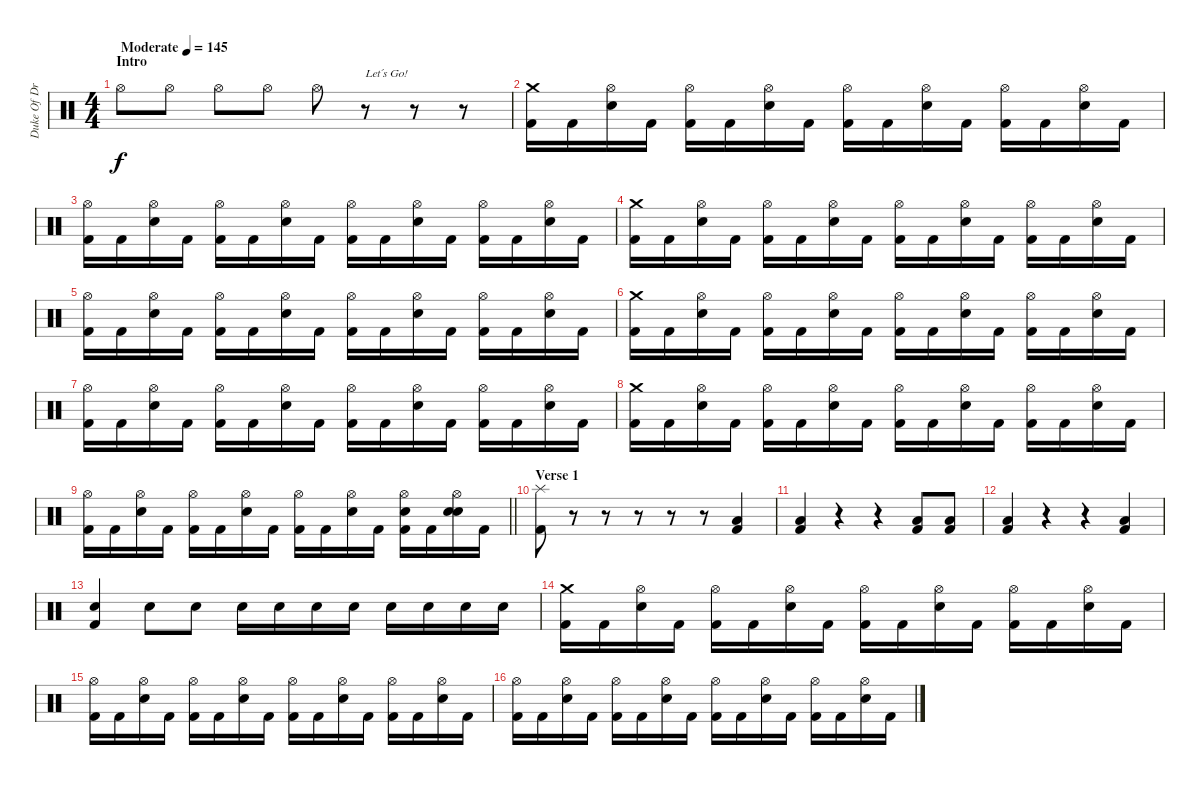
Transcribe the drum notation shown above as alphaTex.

\track ("Duke Of Drumington" "Duke Of Dr") {instrument percussion}
\staff {score}
\articulation defaults
\ts (4 4)
\section ("" "Intro")
\tempo (145 "Moderate")
\clef neutral
\ks c "Hi-Hat (open)".8{dy f} "Hi-Hat (open)".8 "Hi-Hat (open)".8 "Hi-Hat (open)".8 "Hi-Hat (open)".8
r.8{txt "Let´s Go!"} r.8 r.8 |
("Kick (hit) 2" "Crash medium (hit)").16 "Kick (hit) 2".16 ("Snare (hit) 2" "Hi-Hat (open)").16 "Kick (hit) 2".16 ("Kick (hit) 2" "Hi-Hat (open)").16 "Kick (hit) 2".16 ("Snare (hit) 2" "Hi-Hat (open)").16 "Kick (hit) 2".16 ("Kick (hit) 2" "Hi-Hat (open)").16 "Kick (hit) 2".16 ("Snare (hit) 2" "Hi-Hat (open)").16 "Kick (hit) 2".16 ("Kick (hit) 2" "Hi-Hat (open)").16 "Kick (hit) 2".16 ("Snare (hit) 2" "Hi-Hat (open)").16 "Kick (hit) 2".16 |
("Kick (hit) 2" "Hi-Hat (open)").16 "Kick (hit) 2".16 ("Snare (hit) 2" "Hi-Hat (open)").16 "Kick (hit) 2".16 ("Kick (hit) 2" "Hi-Hat (open)").16 "Kick (hit) 2".16 ("Snare (hit) 2" "Hi-Hat (open)").16 "Kick (hit) 2".16 ("Kick (hit) 2" "Hi-Hat (open)").16 "Kick (hit) 2".16 ("Snare (hit) 2" "Hi-Hat (open)").16 "Kick (hit) 2".16 ("Kick (hit) 2" "Hi-Hat (open)").16 "Kick (hit) 2".16 ("Snare (hit) 2" "Hi-Hat (open)").16 "Kick (hit) 2".16 |
("Kick (hit) 2" "Crash medium (hit)").16 "Kick (hit) 2".16 ("Snare (hit) 2" "Hi-Hat (open)").16 "Kick (hit) 2".16 ("Kick (hit) 2" "Hi-Hat (open)").16 "Kick (hit) 2".16 ("Snare (hit) 2" "Hi-Hat (open)").16 "Kick (hit) 2".16 ("Kick (hit) 2" "Hi-Hat (open)").16 "Kick (hit) 2".16 ("Snare (hit) 2" "Hi-Hat (open)").16 "Kick (hit) 2".16 ("Kick (hit) 2" "Hi-Hat (open)").16 "Kick (hit) 2".16 ("Snare (hit) 2" "Hi-Hat (open)").16 "Kick (hit) 2".16 |
("Kick (hit) 2" "Hi-Hat (open)").16 "Kick (hit) 2".16 ("Snare (hit) 2" "Hi-Hat (open)").16 "Kick (hit) 2".16 ("Kick (hit) 2" "Hi-Hat (open)").16 "Kick (hit) 2".16 ("Snare (hit) 2" "Hi-Hat (open)").16 "Kick (hit) 2".16 ("Kick (hit) 2" "Hi-Hat (open)").16 "Kick (hit) 2".16 ("Snare (hit) 2" "Hi-Hat (open)").16 "Kick (hit) 2".16 ("Kick (hit) 2" "Hi-Hat (open)").16 "Kick (hit) 2".16 ("Snare (hit) 2" "Hi-Hat (open)").16 "Kick (hit) 2".16 |
("Kick (hit) 2" "Crash medium (hit)").16 "Kick (hit) 2".16 ("Snare (hit) 2" "Hi-Hat (open)").16 "Kick (hit) 2".16 ("Kick (hit) 2" "Hi-Hat (open)").16 "Kick (hit) 2".16 ("Snare (hit) 2" "Hi-Hat (open)").16 "Kick (hit) 2".16 ("Kick (hit) 2" "Hi-Hat (open)").16 "Kick (hit) 2".16 ("Snare (hit) 2" "Hi-Hat (open)").16 "Kick (hit) 2".16 ("Kick (hit) 2" "Hi-Hat (open)").16 "Kick (hit) 2".16 ("Snare (hit) 2" "Hi-Hat (open)").16 "Kick (hit) 2".16 |
("Kick (hit) 2" "Hi-Hat (open)").16 "Kick (hit) 2".16 ("Snare (hit) 2" "Hi-Hat (open)").16 "Kick (hit) 2".16 ("Kick (hit) 2" "Hi-Hat (open)").16 "Kick (hit) 2".16 ("Snare (hit) 2" "Hi-Hat (open)").16 "Kick (hit) 2".16 ("Kick (hit) 2" "Hi-Hat (open)").16 "Kick (hit) 2".16 ("Snare (hit) 2" "Hi-Hat (open)").16 "Kick (hit) 2".16 ("Kick (hit) 2" "Hi-Hat (open)").16 "Kick (hit) 2".16 ("Snare (hit) 2" "Hi-Hat (open)").16 "Kick (hit) 2".16 |
("Kick (hit) 2" "Crash medium (hit)").16 "Kick (hit) 2".16 ("Snare (hit) 2" "Hi-Hat (open)").16 "Kick (hit) 2".16 ("Kick (hit) 2" "Hi-Hat (open)").16 "Kick (hit) 2".16 ("Snare (hit) 2" "Hi-Hat (open)").16 "Kick (hit) 2".16 ("Kick (hit) 2" "Hi-Hat (open)").16 "Kick (hit) 2".16 ("Snare (hit) 2" "Hi-Hat (open)").16 "Kick (hit) 2".16 ("Kick (hit) 2" "Hi-Hat (open)").16 "Kick (hit) 2".16 ("Snare (hit) 2" "Hi-Hat (open)").16 "Kick (hit) 2".16 |
\barLineRight lightlight
("Kick (hit) 2" "Hi-Hat (open)").16 "Kick (hit) 2".16 ("Snare (hit) 2" "Hi-Hat (open)").16 "Kick (hit) 2".16 ("Kick (hit) 2" "Hi-Hat (open)").16 "Kick (hit) 2".16 ("Snare (hit) 2" "Hi-Hat (open)").16 "Kick (hit) 2".16 ("Kick (hit) 2" "Hi-Hat (open)").16 "Kick (hit) 2".16 ("Snare (hit) 2" "Hi-Hat (open)").16 "Kick (hit) 2".16 ("Kick (hit) 2" "Electric Snare (hit)" "Hi-Hat (open)").16 "Kick (hit) 2".16 ("Snare (hit) 2" "Electric Snare (hit)" "Hi-Hat (open)").16 "Kick (hit) 2".16 |
\section ("" "Verse 1")
("Splash (hit)" "Kick (hit) 2").8 r.8 r.8 r.8 r.8 r.8 ("Low Floor Tom (hit)" "Kick (hit) 2").4 |
("Low Floor Tom (hit)" "Kick (hit) 2").4 r.4 r.4 ("Low Floor Tom (hit)" "Kick (hit) 2").8 ("Low Floor Tom (hit)" "Kick (hit) 2").8 |
("Low Floor Tom (hit)" "Kick (hit) 2").4 r.4 r.4 ("Low Floor Tom (hit)" "Kick (hit) 2").4 |
("Kick (hit) 2" "Electric Snare (hit)").4 "Electric Snare (hit)".8 "Electric Snare (hit)".8 "Electric Snare (hit)".16 "Electric Snare (hit)".16 "Electric Snare (hit)".16 "Electric Snare (hit)".16 "Electric Snare (hit)".16 "Electric Snare (hit)".16 "Electric Snare (hit)".16 "Electric Snare (hit)".16 |
("Kick (hit) 2" "Crash medium (hit)").16 "Kick (hit) 2".16 ("Snare (hit) 2" "Hi-Hat (open)").16 "Kick (hit) 2".16 ("Kick (hit) 2" "Hi-Hat (open)").16 "Kick (hit) 2".16 ("Snare (hit) 2" "Hi-Hat (open)").16 "Kick (hit) 2".16 ("Kick (hit) 2" "Hi-Hat (open)").16 "Kick (hit) 2".16 ("Snare (hit) 2" "Hi-Hat (open)").16 "Kick (hit) 2".16 ("Kick (hit) 2" "Hi-Hat (open)").16 "Kick (hit) 2".16 ("Snare (hit) 2" "Hi-Hat (open)").16 "Kick (hit) 2".16 |
("Kick (hit) 2" "Hi-Hat (open)").16 "Kick (hit) 2".16 ("Snare (hit) 2" "Hi-Hat (open)").16 "Kick (hit) 2".16 ("Kick (hit) 2" "Hi-Hat (open)").16 "Kick (hit) 2".16 ("Snare (hit) 2" "Hi-Hat (open)").16 "Kick (hit) 2".16 ("Kick (hit) 2" "Hi-Hat (open)").16 "Kick (hit) 2".16 ("Snare (hit) 2" "Hi-Hat (open)").16 "Kick (hit) 2".16 ("Kick (hit) 2" "Hi-Hat (open)").16 "Kick (hit) 2".16 ("Snare (hit) 2" "Hi-Hat (open)").16 "Kick (hit) 2".16 |
("Kick (hit) 2" "Hi-Hat (open)").16 "Kick (hit) 2".16 ("Snare (hit) 2" "Hi-Hat (open)").16 "Kick (hit) 2".16 ("Kick (hit) 2" "Hi-Hat (open)").16 "Kick (hit) 2".16 ("Snare (hit) 2" "Hi-Hat (open)").16 "Kick (hit) 2".16 ("Kick (hit) 2" "Hi-Hat (open)").16 "Kick (hit) 2".16 ("Snare (hit) 2" "Hi-Hat (open)").16 "Kick (hit) 2".16 ("Kick (hit) 2" "Hi-Hat (open)").16 "Kick (hit) 2".16 ("Snare (hit) 2" "Hi-Hat (open)").16 "Kick (hit) 2".16
